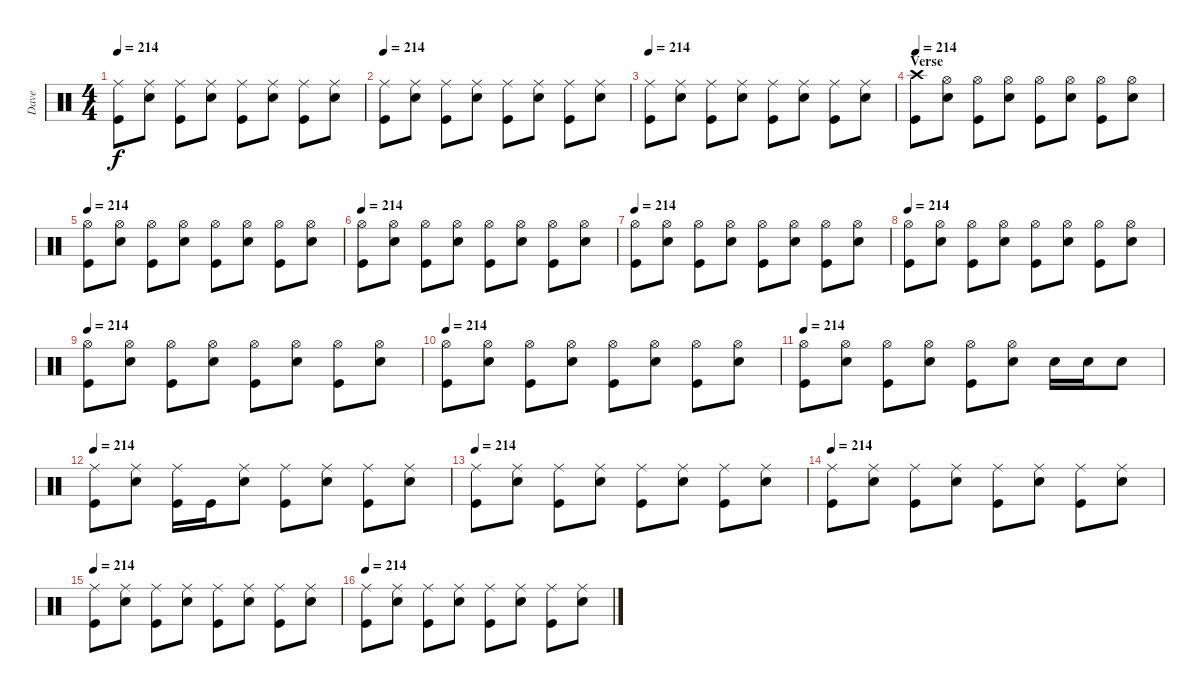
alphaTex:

\track ("Dave" "Dave") {instrument percussion}
\staff {score}
\articulation defaults
\ts (4 4)
\tempo 214
\clef neutral
\ks c
("Ride (middle)" "Kick (hit)").8{dy f} ("Ride (middle)" "Snare (hit) 2").8 ("Ride (middle)" "Kick (hit)").8 ("Ride (middle)" "Snare (hit) 2").8 ("Ride (middle)" "Kick (hit)").8 ("Ride (middle)" "Snare (hit) 2").8 ("Ride (middle)" "Kick (hit)").8 ("Ride (middle)" "Snare (hit) 2").8 |
\tempo 214
("Ride (middle)" "Kick (hit)").8 ("Ride (middle)" "Snare (hit) 2").8 ("Ride (middle)" "Kick (hit)").8 ("Ride (middle)" "Snare (hit) 2").8 ("Ride (middle)" "Kick (hit)").8 ("Ride (middle)" "Snare (hit) 2").8 ("Ride (middle)" "Kick (hit)").8 ("Ride (middle)" "Snare (hit) 2").8 |
\tempo 214
("Ride (middle)" "Kick (hit)").8 ("Ride (middle)" "Snare (hit) 2").8 ("Ride (middle)" "Kick (hit)").8 ("Ride (middle)" "Snare (hit) 2").8 ("Ride (middle)" "Kick (hit)").8 ("Ride (middle)" "Snare (hit) 2").8 ("Ride (middle)" "Kick (hit)").8 ("Ride (middle)" "Snare (hit) 2").8 |
\section ("" "Verse")
\tempo 214
("Crash high (hit)" "Kick (hit)").8 ("Hi-Hat (open)" "Snare (hit) 2").8 ("Hi-Hat (open)" "Kick (hit)").8 ("Hi-Hat (open)" "Snare (hit) 2").8 ("Hi-Hat (open)" "Kick (hit)").8 ("Hi-Hat (open)" "Snare (hit) 2").8 ("Hi-Hat (open)" "Kick (hit)").8 ("Hi-Hat (open)" "Snare (hit) 2").8 |
\tempo 214
("Hi-Hat (open)" "Kick (hit)").8 ("Hi-Hat (open)" "Snare (hit) 2").8 ("Hi-Hat (open)" "Kick (hit)").8 ("Hi-Hat (open)" "Snare (hit) 2").8 ("Hi-Hat (open)" "Kick (hit)").8 ("Hi-Hat (open)" "Snare (hit) 2").8 ("Hi-Hat (open)" "Kick (hit)").8 ("Hi-Hat (open)" "Snare (hit) 2").8 |
\tempo 214
("Hi-Hat (open)" "Kick (hit)").8 ("Hi-Hat (open)" "Snare (hit) 2").8 ("Hi-Hat (open)" "Kick (hit)").8 ("Hi-Hat (open)" "Snare (hit) 2").8 ("Hi-Hat (open)" "Kick (hit)").8 ("Hi-Hat (open)" "Snare (hit) 2").8 ("Hi-Hat (open)" "Kick (hit)").8 ("Hi-Hat (open)" "Snare (hit) 2").8 |
\tempo 214
("Hi-Hat (open)" "Kick (hit)").8 ("Hi-Hat (open)" "Snare (hit) 2").8 ("Hi-Hat (open)" "Kick (hit)").8 ("Hi-Hat (open)" "Snare (hit) 2").8 ("Hi-Hat (open)" "Kick (hit)").8 ("Hi-Hat (open)" "Snare (hit) 2").8 ("Hi-Hat (open)" "Kick (hit)").8 ("Hi-Hat (open)" "Snare (hit) 2").8 |
\tempo 214
("Hi-Hat (open)" "Kick (hit)").8 ("Hi-Hat (open)" "Snare (hit) 2").8 ("Hi-Hat (open)" "Kick (hit)").8 ("Hi-Hat (open)" "Snare (hit) 2").8 ("Hi-Hat (open)" "Kick (hit)").8 ("Hi-Hat (open)" "Snare (hit) 2").8 ("Hi-Hat (open)" "Kick (hit)").8 ("Hi-Hat (open)" "Snare (hit) 2").8 |
\tempo 214
("Hi-Hat (open)" "Kick (hit)").8 ("Hi-Hat (open)" "Snare (hit) 2").8 ("Hi-Hat (open)" "Kick (hit)").8 ("Hi-Hat (open)" "Snare (hit) 2").8 ("Hi-Hat (open)" "Kick (hit)").8 ("Hi-Hat (open)" "Snare (hit) 2").8 ("Hi-Hat (open)" "Kick (hit)").8 ("Hi-Hat (open)" "Snare (hit) 2").8 |
\tempo 214
("Hi-Hat (open)" "Kick (hit)").8 ("Hi-Hat (open)" "Snare (hit) 2").8 ("Hi-Hat (open)" "Kick (hit)").8 ("Hi-Hat (open)" "Snare (hit) 2").8 ("Hi-Hat (open)" "Kick (hit)").8 ("Hi-Hat (open)" "Snare (hit) 2").8 ("Hi-Hat (open)" "Kick (hit)").8 ("Hi-Hat (open)" "Snare (hit) 2").8 |
\tempo 214
("Hi-Hat (open)" "Kick (hit)").8 ("Hi-Hat (open)" "Snare (hit) 2").8 ("Hi-Hat (open)" "Kick (hit)").8 ("Hi-Hat (open)" "Snare (hit) 2").8 ("Hi-Hat (open)" "Kick (hit)").8 ("Hi-Hat (open)" "Snare (hit) 2").8 "Snare (hit) 2".16 "Snare (hit) 2".16 "Snare (hit) 2".8 |
\tempo 214
("Ride (middle)" "Kick (hit)").8 ("Ride (middle)" "Snare (hit) 2").8 ("Ride (middle)" "Kick (hit)").16 "Kick (hit)".16 ("Ride (middle)" "Snare (hit) 2").8 ("Ride (middle)" "Kick (hit)").8 ("Ride (middle)" "Snare (hit) 2").8 ("Ride (middle)" "Kick (hit)").8 ("Ride (middle)" "Snare (hit) 2").8 |
\tempo 214
("Ride (middle)" "Kick (hit)").8 ("Ride (middle)" "Snare (hit) 2").8 ("Ride (middle)" "Kick (hit)").8 ("Ride (middle)" "Snare (hit) 2").8 ("Ride (middle)" "Kick (hit)").8 ("Ride (middle)" "Snare (hit) 2").8 ("Ride (middle)" "Kick (hit)").8 ("Ride (middle)" "Snare (hit) 2").8 |
\tempo 214
("Ride (middle)" "Kick (hit)").8 ("Ride (middle)" "Snare (hit) 2").8 ("Ride (middle)" "Kick (hit)").8 ("Ride (middle)" "Snare (hit) 2").8 ("Ride (middle)" "Kick (hit)").8 ("Ride (middle)" "Snare (hit) 2").8 ("Ride (middle)" "Kick (hit)").8 ("Ride (middle)" "Snare (hit) 2").8 |
\tempo 214
("Ride (middle)" "Kick (hit)").8 ("Ride (middle)" "Snare (hit) 2").8 ("Ride (middle)" "Kick (hit)").8 ("Ride (middle)" "Snare (hit) 2").8 ("Ride (middle)" "Kick (hit)").8 ("Ride (middle)" "Snare (hit) 2").8 ("Ride (middle)" "Kick (hit)").8 ("Ride (middle)" "Snare (hit) 2").8 |
\tempo 214
("Ride (middle)" "Kick (hit)").8 ("Ride (middle)" "Snare (hit) 2").8 ("Ride (middle)" "Kick (hit)").8 ("Ride (middle)" "Snare (hit) 2").8 ("Ride (middle)" "Kick (hit)").8 ("Ride (middle)" "Snare (hit) 2").8 ("Ride (middle)" "Kick (hit)").8 ("Ride (middle)" "Snare (hit) 2").8
